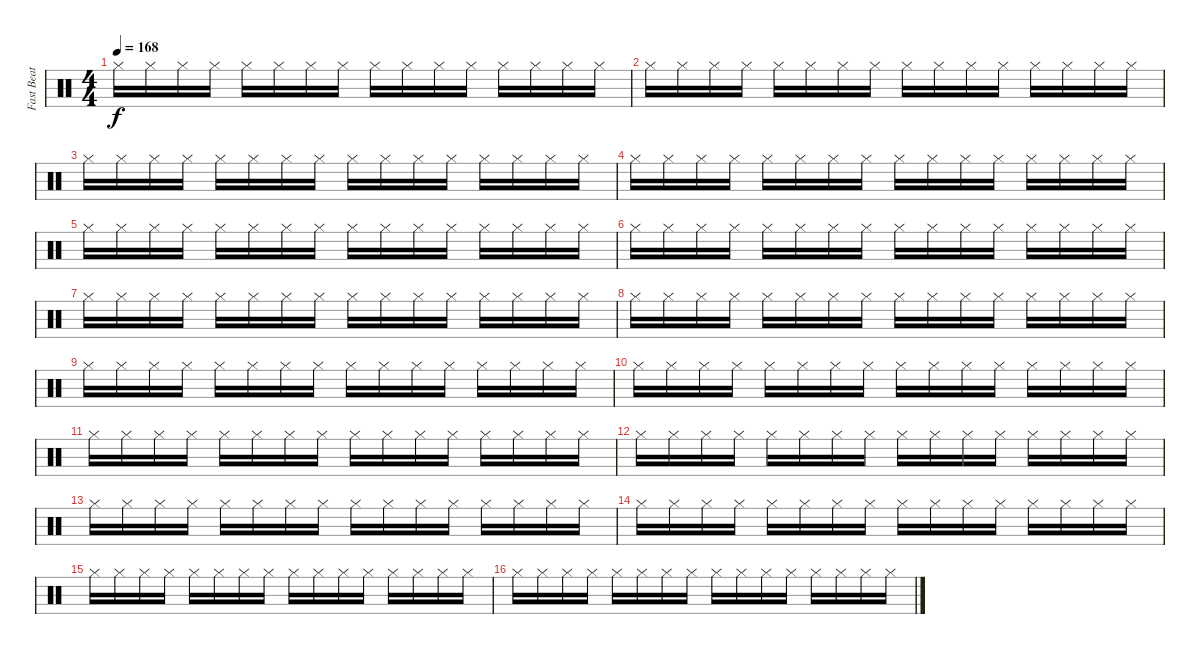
\track ("Fast Beat" "Fast Beat") {instrument percussion}
\staff {score}
\articulation defaults
\ts (4 4)
\tempo 168
\clef neutral
\ks c "Hi-Hat (closed)".16{dy f} "Hi-Hat (closed)".16 "Hi-Hat (closed)".16 "Hi-Hat (closed)".16 "Hi-Hat (closed)".16 "Hi-Hat (closed)".16 "Hi-Hat (closed)".16 "Hi-Hat (closed)".16 "Hi-Hat (closed)".16 "Hi-Hat (closed)".16 "Hi-Hat (closed)".16 "Hi-Hat (closed)".16 "Hi-Hat (closed)".16 "Hi-Hat (closed)".16 "Hi-Hat (closed)".16 "Hi-Hat (closed)".16
|
"Hi-Hat (closed)".16 "Hi-Hat (closed)".16 "Hi-Hat (closed)".16 "Hi-Hat (closed)".16 "Hi-Hat (closed)".16 "Hi-Hat (closed)".16 "Hi-Hat (closed)".16 "Hi-Hat (closed)".16 "Hi-Hat (closed)".16 "Hi-Hat (closed)".16 "Hi-Hat (closed)".16 "Hi-Hat (closed)".16 "Hi-Hat (closed)".16 "Hi-Hat (closed)".16 "Hi-Hat (closed)".16 "Hi-Hat (closed)".16 |
"Hi-Hat (closed)".16 "Hi-Hat (closed)".16 "Hi-Hat (closed)".16 "Hi-Hat (closed)".16 "Hi-Hat (closed)".16 "Hi-Hat (closed)".16 "Hi-Hat (closed)".16 "Hi-Hat (closed)".16 "Hi-Hat (closed)".16 "Hi-Hat (closed)".16 "Hi-Hat (closed)".16 "Hi-Hat (closed)".16 "Hi-Hat (closed)".16 "Hi-Hat (closed)".16 "Hi-Hat (closed)".16 "Hi-Hat (closed)".16 |
"Hi-Hat (closed)".16 "Hi-Hat (closed)".16 "Hi-Hat (closed)".16 "Hi-Hat (closed)".16 "Hi-Hat (closed)".16 "Hi-Hat (closed)".16 "Hi-Hat (closed)".16 "Hi-Hat (closed)".16 "Hi-Hat (closed)".16 "Hi-Hat (closed)".16 "Hi-Hat (closed)".16 "Hi-Hat (closed)".16 "Hi-Hat (closed)".16 "Hi-Hat (closed)".16 "Hi-Hat (closed)".16 "Hi-Hat (closed)".16 |
"Hi-Hat (closed)".16 "Hi-Hat (closed)".16 "Hi-Hat (closed)".16 "Hi-Hat (closed)".16 "Hi-Hat (closed)".16 "Hi-Hat (closed)".16 "Hi-Hat (closed)".16 "Hi-Hat (closed)".16 "Hi-Hat (closed)".16 "Hi-Hat (closed)".16 "Hi-Hat (closed)".16 "Hi-Hat (closed)".16 "Hi-Hat (closed)".16 "Hi-Hat (closed)".16 "Hi-Hat (closed)".16 "Hi-Hat (closed)".16 |
"Hi-Hat (closed)".16 "Hi-Hat (closed)".16 "Hi-Hat (closed)".16 "Hi-Hat (closed)".16 "Hi-Hat (closed)".16 "Hi-Hat (closed)".16 "Hi-Hat (closed)".16 "Hi-Hat (closed)".16 "Hi-Hat (closed)".16 "Hi-Hat (closed)".16 "Hi-Hat (closed)".16 "Hi-Hat (closed)".16 "Hi-Hat (closed)".16 "Hi-Hat (closed)".16 "Hi-Hat (closed)".16 "Hi-Hat (closed)".16 |
"Hi-Hat (closed)".16 "Hi-Hat (closed)".16 "Hi-Hat (closed)".16 "Hi-Hat (closed)".16 "Hi-Hat (closed)".16 "Hi-Hat (closed)".16 "Hi-Hat (closed)".16 "Hi-Hat (closed)".16 "Hi-Hat (closed)".16 "Hi-Hat (closed)".16 "Hi-Hat (closed)".16 "Hi-Hat (closed)".16 "Hi-Hat (closed)".16 "Hi-Hat (closed)".16 "Hi-Hat (closed)".16 "Hi-Hat (closed)".16 |
"Hi-Hat (closed)".16 "Hi-Hat (closed)".16 "Hi-Hat (closed)".16 "Hi-Hat (closed)".16 "Hi-Hat (closed)".16 "Hi-Hat (closed)".16 "Hi-Hat (closed)".16 "Hi-Hat (closed)".16 "Hi-Hat (closed)".16 "Hi-Hat (closed)".16 "Hi-Hat (closed)".16 "Hi-Hat (closed)".16 "Hi-Hat (closed)".16 "Hi-Hat (closed)".16 "Hi-Hat (closed)".16 "Hi-Hat (closed)".16 |
"Hi-Hat (closed)".16 "Hi-Hat (closed)".16 "Hi-Hat (closed)".16 "Hi-Hat (closed)".16 "Hi-Hat (closed)".16 "Hi-Hat (closed)".16 "Hi-Hat (closed)".16 "Hi-Hat (closed)".16 "Hi-Hat (closed)".16 "Hi-Hat (closed)".16 "Hi-Hat (closed)".16 "Hi-Hat (closed)".16 "Hi-Hat (closed)".16 "Hi-Hat (closed)".16 "Hi-Hat (closed)".16 "Hi-Hat (closed)".16 |
"Hi-Hat (closed)".16 "Hi-Hat (closed)".16 "Hi-Hat (closed)".16 "Hi-Hat (closed)".16 "Hi-Hat (closed)".16 "Hi-Hat (closed)".16 "Hi-Hat (closed)".16 "Hi-Hat (closed)".16 "Hi-Hat (closed)".16 "Hi-Hat (closed)".16 "Hi-Hat (closed)".16 "Hi-Hat (closed)".16 "Hi-Hat (closed)".16 "Hi-Hat (closed)".16 "Hi-Hat (closed)".16 "Hi-Hat (closed)".16 |
"Hi-Hat (closed)".16 "Hi-Hat (closed)".16 "Hi-Hat (closed)".16 "Hi-Hat (closed)".16 "Hi-Hat (closed)".16 "Hi-Hat (closed)".16 "Hi-Hat (closed)".16 "Hi-Hat (closed)".16 "Hi-Hat (closed)".16 "Hi-Hat (closed)".16 "Hi-Hat (closed)".16 "Hi-Hat (closed)".16 "Hi-Hat (closed)".16 "Hi-Hat (closed)".16 "Hi-Hat (closed)".16 "Hi-Hat (closed)".16 |
"Hi-Hat (closed)".16 "Hi-Hat (closed)".16 "Hi-Hat (closed)".16 "Hi-Hat (closed)".16 "Hi-Hat (closed)".16 "Hi-Hat (closed)".16 "Hi-Hat (closed)".16 "Hi-Hat (closed)".16 "Hi-Hat (closed)".16 "Hi-Hat (closed)".16 "Hi-Hat (closed)".16 "Hi-Hat (closed)".16 "Hi-Hat (closed)".16 "Hi-Hat (closed)".16 "Hi-Hat (closed)".16 "Hi-Hat (closed)".16 |
"Hi-Hat (closed)".16 "Hi-Hat (closed)".16 "Hi-Hat (closed)".16 "Hi-Hat (closed)".16 "Hi-Hat (closed)".16 "Hi-Hat (closed)".16 "Hi-Hat (closed)".16 "Hi-Hat (closed)".16 "Hi-Hat (closed)".16 "Hi-Hat (closed)".16 "Hi-Hat (closed)".16 "Hi-Hat (closed)".16 "Hi-Hat (closed)".16 "Hi-Hat (closed)".16 "Hi-Hat (closed)".16 "Hi-Hat (closed)".16 |
"Hi-Hat (closed)".16 "Hi-Hat (closed)".16 "Hi-Hat (closed)".16 "Hi-Hat (closed)".16 "Hi-Hat (closed)".16 "Hi-Hat (closed)".16 "Hi-Hat (closed)".16 "Hi-Hat (closed)".16 "Hi-Hat (closed)".16 "Hi-Hat (closed)".16 "Hi-Hat (closed)".16 "Hi-Hat (closed)".16 "Hi-Hat (closed)".16 "Hi-Hat (closed)".16 "Hi-Hat (closed)".16 "Hi-Hat (closed)".16 |
"Hi-Hat (closed)".16 "Hi-Hat (closed)".16 "Hi-Hat (closed)".16 "Hi-Hat (closed)".16 "Hi-Hat (closed)".16 "Hi-Hat (closed)".16 "Hi-Hat (closed)".16 "Hi-Hat (closed)".16 "Hi-Hat (closed)".16 "Hi-Hat (closed)".16 "Hi-Hat (closed)".16 "Hi-Hat (closed)".16 "Hi-Hat (closed)".16 "Hi-Hat (closed)".16 "Hi-Hat (closed)".16 "Hi-Hat (closed)".16 |
"Hi-Hat (closed)".16 "Hi-Hat (closed)".16 "Hi-Hat (closed)".16 "Hi-Hat (closed)".16 "Hi-Hat (closed)".16 "Hi-Hat (closed)".16 "Hi-Hat (closed)".16 "Hi-Hat (closed)".16 "Hi-Hat (closed)".16 "Hi-Hat (closed)".16 "Hi-Hat (closed)".16 "Hi-Hat (closed)".16 "Hi-Hat (closed)".16 "Hi-Hat (closed)".16 "Hi-Hat (closed)".16 "Hi-Hat (closed)".16
